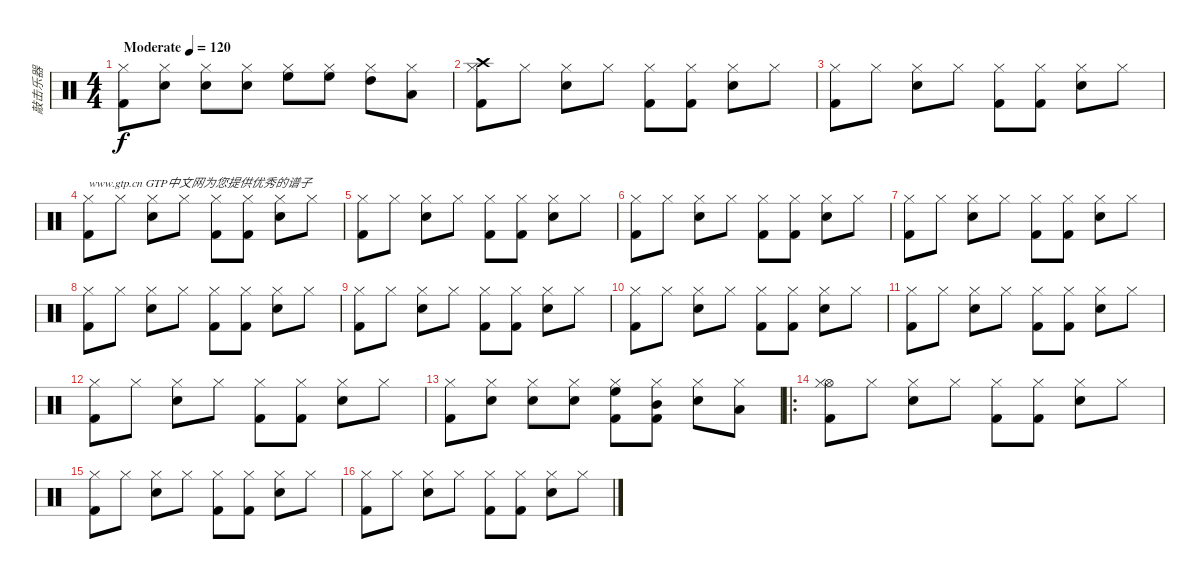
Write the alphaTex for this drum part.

\track ("敲击乐器" "敲击乐器") {instrument percussion}
\staff {score}
\articulation defaults
\ts (4 4)
\tempo (120 "Moderate")
\clef neutral
\ks c
("Kick (hit) 2" "Hi-Hat (closed)").8{dy f} ("Hi-Hat (closed)" "Electric Snare (hit)").8 ("Electric Snare (hit)" "Hi-Hat (closed)").8 ("Hi-Hat (closed)" "Electric Snare (hit)").8 ("High Floor Tom (hit)" "Hi-Hat (closed)").8 ("Hi-Hat (closed)" "High Floor Tom (hit)").8 ("High Tom (hit)" "Hi-Hat (closed)").8 ("Low Tom (hit)" "Hi-Hat (closed)").8 |
("Kick (hit) 2" "Crash high (hit)" "Hi-Hat (closed)").8 "Hi-Hat (closed)".8 ("Electric Snare (hit)" "Hi-Hat (closed)").8 "Hi-Hat (closed)".8 ("Kick (hit) 2" "Hi-Hat (closed)").8 ("Hi-Hat (closed)" "Kick (hit) 2").8 ("Electric Snare (hit)" "Hi-Hat (closed)").8 "Hi-Hat (closed)".8 |
("Kick (hit) 2" "Hi-Hat (closed)").8 "Hi-Hat (closed)".8 ("Electric Snare (hit)" "Hi-Hat (closed)").8 "Hi-Hat (closed)".8 ("Kick (hit) 2" "Hi-Hat (closed)").8 ("Hi-Hat (closed)" "Kick (hit) 2").8 ("Electric Snare (hit)" "Hi-Hat (closed)").8 "Hi-Hat (closed)".8 |
("Kick (hit) 2" "Hi-Hat (closed)").8{txt "www.gtp.cn GTP中文网为您提供优秀的谱子"} "Hi-Hat (closed)".8 ("Electric Snare (hit)" "Hi-Hat (closed)").8 "Hi-Hat (closed)".8 ("Kick (hit) 2" "Hi-Hat (closed)").8 ("Hi-Hat (closed)" "Kick (hit) 2").8 ("Electric Snare (hit)" "Hi-Hat (closed)").8 "Hi-Hat (closed)".8 |
("Kick (hit) 2" "Hi-Hat (closed)").8 "Hi-Hat (closed)".8 ("Electric Snare (hit)" "Hi-Hat (closed)").8 "Hi-Hat (closed)".8 ("Kick (hit) 2" "Hi-Hat (closed)").8 ("Hi-Hat (closed)" "Kick (hit) 2").8 ("Electric Snare (hit)" "Hi-Hat (closed)").8 "Hi-Hat (closed)".8 |
("Kick (hit) 2" "Hi-Hat (closed)").8 "Hi-Hat (closed)".8 ("Electric Snare (hit)" "Hi-Hat (closed)").8 "Hi-Hat (closed)".8 ("Kick (hit) 2" "Hi-Hat (closed)").8 ("Hi-Hat (closed)" "Kick (hit) 2").8 ("Electric Snare (hit)" "Hi-Hat (closed)").8 "Hi-Hat (closed)".8 |
("Kick (hit) 2" "Hi-Hat (closed)").8 "Hi-Hat (closed)".8 ("Electric Snare (hit)" "Hi-Hat (closed)").8 "Hi-Hat (closed)".8 ("Kick (hit) 2" "Hi-Hat (closed)").8 ("Hi-Hat (closed)" "Kick (hit) 2").8 ("Electric Snare (hit)" "Hi-Hat (closed)").8 "Hi-Hat (closed)".8 |
("Kick (hit) 2" "Hi-Hat (closed)").8 "Hi-Hat (closed)".8 ("Electric Snare (hit)" "Hi-Hat (closed)").8 "Hi-Hat (closed)".8 ("Kick (hit) 2" "Hi-Hat (closed)").8 ("Hi-Hat (closed)" "Kick (hit) 2").8 ("Electric Snare (hit)" "Hi-Hat (closed)").8 "Hi-Hat (closed)".8 |
("Kick (hit) 2" "Hi-Hat (closed)").8 "Hi-Hat (closed)".8 ("Electric Snare (hit)" "Hi-Hat (closed)").8 "Hi-Hat (closed)".8 ("Kick (hit) 2" "Hi-Hat (closed)").8 ("Hi-Hat (closed)" "Kick (hit) 2").8 ("Electric Snare (hit)" "Hi-Hat (closed)").8 "Hi-Hat (closed)".8 |
("Kick (hit) 2" "Hi-Hat (closed)").8 "Hi-Hat (closed)".8 ("Electric Snare (hit)" "Hi-Hat (closed)").8 "Hi-Hat (closed)".8 ("Kick (hit) 2" "Hi-Hat (closed)").8 ("Hi-Hat (closed)" "Kick (hit) 2").8 ("Electric Snare (hit)" "Hi-Hat (closed)").8 "Hi-Hat (closed)".8 |
("Kick (hit) 2" "Hi-Hat (closed)").8 "Hi-Hat (closed)".8 ("Electric Snare (hit)" "Hi-Hat (closed)").8 "Hi-Hat (closed)".8 ("Kick (hit) 2" "Hi-Hat (closed)").8 ("Hi-Hat (closed)" "Kick (hit) 2").8 ("Electric Snare (hit)" "Hi-Hat (closed)").8 "Hi-Hat (closed)".8 |
("Kick (hit) 2" "Hi-Hat (closed)").8 "Hi-Hat (closed)".8 ("Electric Snare (hit)" "Hi-Hat (closed)").8 "Hi-Hat (closed)".8 ("Kick (hit) 2" "Hi-Hat (closed)").8 ("Hi-Hat (closed)" "Kick (hit) 2").8 ("Electric Snare (hit)" "Hi-Hat (closed)").8 "Hi-Hat (closed)".8 |
("Kick (hit) 2" "Hi-Hat (closed)").8 ("Hi-Hat (closed)" "Electric Snare (hit)").8 ("Electric Snare (hit)" "Hi-Hat (closed)").8 ("Hi-Hat (closed)" "Electric Snare (hit)").8 ("Kick (hit) 2" "Hi-Hat (closed)" "High Floor Tom (hit)").8 ("Hi-Hat (closed)" "Kick (hit) 2" "Mid Tom (hit)").8 ("Electric Snare (hit)" "Hi-Hat (closed)").8 ("Hi-Hat (closed)" "Low Tom (hit)").8 |
\ro
("Kick (hit) 2" "Hi-Hat (open)" "Hi-Hat (closed)").8 "Hi-Hat (closed)".8 ("Electric Snare (hit)" "Hi-Hat (closed)").8 "Hi-Hat (closed)".8 ("Kick (hit) 2" "Hi-Hat (closed)").8 ("Hi-Hat (closed)" "Kick (hit) 2").8 ("Electric Snare (hit)" "Hi-Hat (closed)").8 "Hi-Hat (closed)".8 |
("Kick (hit) 2" "Hi-Hat (closed)").8 "Hi-Hat (closed)".8 ("Electric Snare (hit)" "Hi-Hat (closed)").8 "Hi-Hat (closed)".8 ("Kick (hit) 2" "Hi-Hat (closed)").8 ("Hi-Hat (closed)" "Kick (hit) 2").8 ("Electric Snare (hit)" "Hi-Hat (closed)").8 "Hi-Hat (closed)".8 |
("Kick (hit) 2" "Hi-Hat (closed)").8 "Hi-Hat (closed)".8 ("Electric Snare (hit)" "Hi-Hat (closed)").8 "Hi-Hat (closed)".8 ("Kick (hit) 2" "Hi-Hat (closed)").8 ("Hi-Hat (closed)" "Kick (hit) 2").8 ("Electric Snare (hit)" "Hi-Hat (closed)").8 "Hi-Hat (closed)".8
